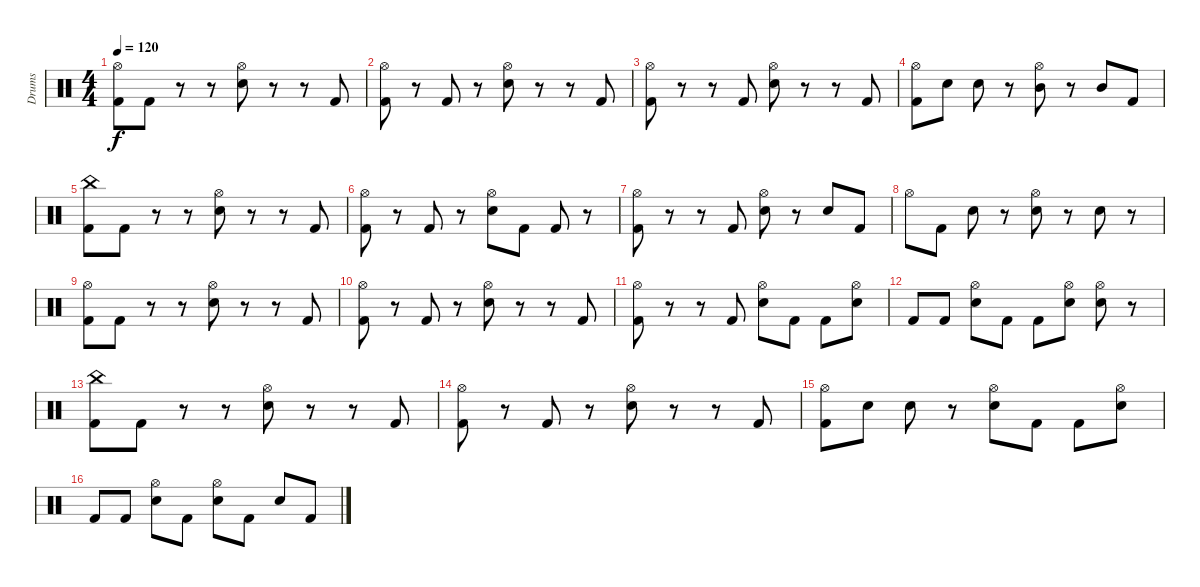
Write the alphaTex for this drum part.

\track ("Drums" "Drums") {instrument percussion}
\staff {score}
\articulation defaults
\ts (4 4)
\tempo 120
\clef neutral
\ks c
("Hi-Hat (open)" "Kick (hit) 2").8{dy f} "Kick (hit) 2".8 r.8 r.8 ("Hi-Hat (open)" "Snare (hit) 2").8 r.8 r.8 "Kick (hit) 2".8 |
("Hi-Hat (open)" "Kick (hit) 2").8 r.8 "Kick (hit) 2".8 r.8 ("Hi-Hat (open)" "Snare (hit) 2").8 r.8 r.8 "Kick (hit) 2".8 |
("Hi-Hat (open)" "Kick (hit) 2").8 r.8 r.8 "Kick (hit) 2".8 ("Hi-Hat (open)" "Snare (hit) 2").8 r.8 r.8 "Kick (hit) 2".8 |
("Hi-Hat (open)" "Kick (hit) 2").8 "Snare (hit) 2".8 "Snare (hit) 2".8 r.8 ("Hi-Hat (open)" "Mid Tom (hit)").8 r.8 "Mid Tom (hit)".8 "Kick (hit) 2".8 |
("China (hit)" "Kick (hit) 2").8 "Kick (hit) 2".8 r.8 r.8 ("Hi-Hat (open)" "Snare (hit) 2").8 r.8 r.8 "Kick (hit) 2".8 |
("Hi-Hat (open)" "Kick (hit) 2").8 r.8 "Kick (hit) 2".8 r.8 ("Hi-Hat (open)" "Snare (hit) 2").8 "Kick (hit) 2".8 "Kick (hit) 2".8 r.8 |
("Hi-Hat (open)" "Kick (hit) 2").8 r.8 r.8 "Kick (hit) 2".8 ("Hi-Hat (open)" "Snare (hit) 2").8 r.8 "Snare (hit) 2".8 "Kick (hit) 2".8 |
"Hi-Hat (open)".8 "Kick (hit) 2".8 "Snare (hit) 2".8 r.8 ("Hi-Hat (open)" "Snare (hit) 2").8 r.8 "Snare (hit) 2".8 r.8 |
("Hi-Hat (open)" "Kick (hit) 2").8 "Kick (hit) 2".8 r.8 r.8 ("Hi-Hat (open)" "Snare (hit) 2").8 r.8 r.8 "Kick (hit) 2".8 |
("Hi-Hat (open)" "Kick (hit) 2").8 r.8 "Kick (hit) 2".8 r.8 ("Hi-Hat (open)" "Snare (hit) 2").8 r.8 r.8 "Kick (hit) 2".8 |
("Hi-Hat (open)" "Kick (hit) 2").8 r.8 r.8 "Kick (hit) 2".8 ("Hi-Hat (open)" "Snare (hit) 2").8 "Kick (hit) 2".8 "Kick (hit) 2".8 ("Hi-Hat (open)" "Snare (hit) 2").8 |
"Kick (hit) 2".8 "Kick (hit) 2".8 ("Hi-Hat (open)" "Snare (hit) 2").8 "Kick (hit) 2".8 "Kick (hit) 2".8 ("Hi-Hat (open)" "Snare (hit) 2").8 ("Hi-Hat (open)" "Snare (hit) 2").8 r.8 |
("China (hit)" "Kick (hit) 2").8 "Kick (hit) 2".8 r.8 r.8 ("Hi-Hat (open)" "Snare (hit) 2").8 r.8 r.8 "Kick (hit) 2".8 |
("Hi-Hat (open)" "Kick (hit) 2").8 r.8 "Kick (hit) 2".8 r.8 ("Hi-Hat (open)" "Snare (hit) 2").8 r.8 r.8 "Kick (hit) 2".8 |
("Hi-Hat (open)" "Kick (hit) 2").8 "Snare (hit) 2".8 "Snare (hit) 2".8 r.8 ("Hi-Hat (open)" "Snare (hit) 2").8 "Kick (hit) 2".8 "Kick (hit) 2".8 ("Hi-Hat (open)" "Snare (hit) 2").8 |
"Kick (hit) 2".8 "Kick (hit) 2".8 ("Hi-Hat (open)" "Snare (hit) 2").8 "Kick (hit) 2".8 ("Hi-Hat (open)" "Snare (hit) 2").8 "Kick (hit) 2".8 "Snare (hit) 2".8 "Kick (hit) 2".8
